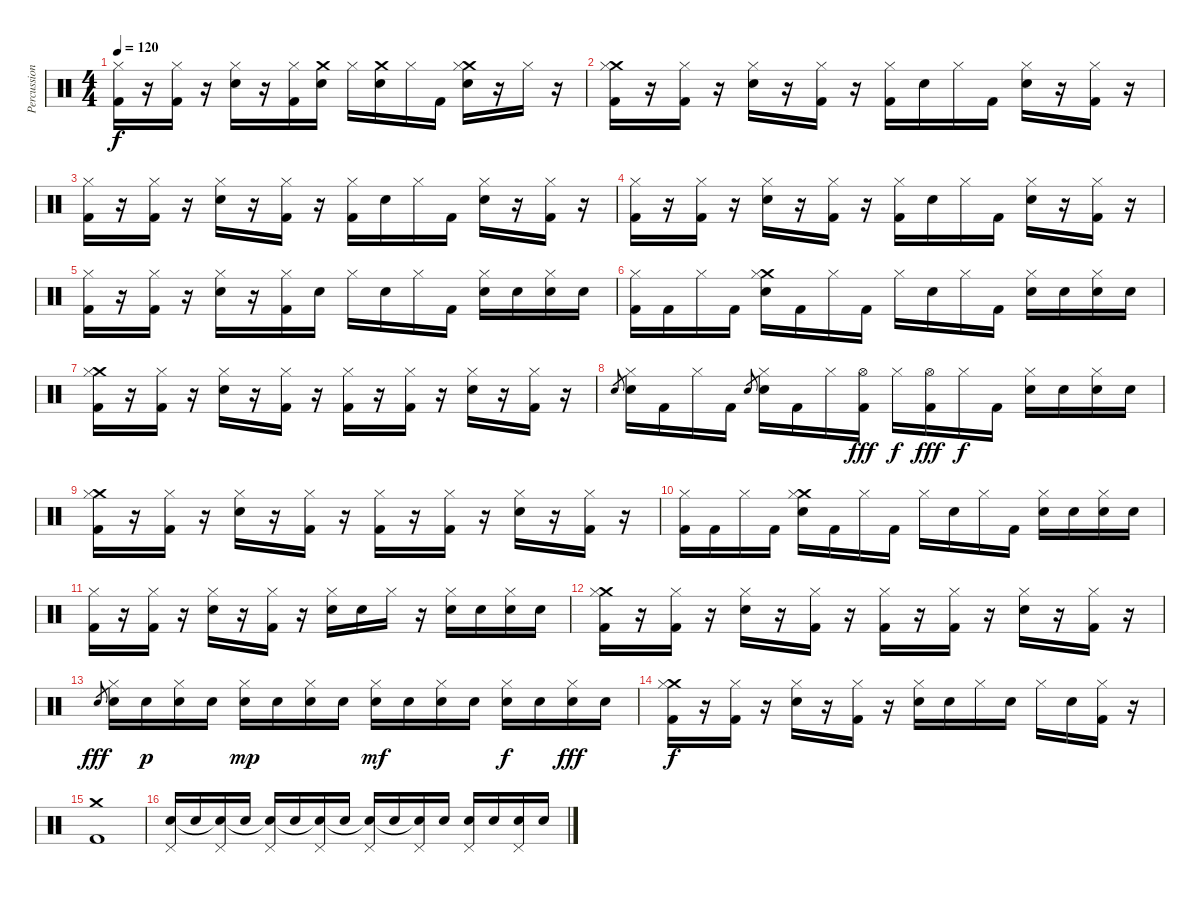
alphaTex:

\track ("Percussion" "Percussion") {instrument percussion}
\staff {score}
\articulation defaults
\ts (4 4)
\tempo 120
\clef neutral
\ks c
("Hi-Hat (closed)" "Kick (hit) 2").16{dy f} r.16 ("Hi-Hat (closed)" "Kick (hit) 2").16 r.16 ("Hi-Hat (closed)" "Snare (hit) 2").16 r.16 ("Hi-Hat (closed)" "Kick (hit) 2").16 ("Crash medium (hit)" "Snare (hit) 2").16 "Hi-Hat (closed)".16 ("Crash medium (hit)" "Snare (hit) 2").16 "Hi-Hat (closed)".16 "Kick (hit) 2".16 ("Crash medium (hit)" "Hi-Hat (closed)" "Snare (hit) 2").16 r.16 "Hi-Hat (closed)".16 r.16 |
("Crash medium (hit)" "Hi-Hat (closed)" "Kick (hit) 2").16 r.16 ("Hi-Hat (closed)" "Kick (hit) 2").16 r.16 ("Hi-Hat (closed)" "Snare (hit) 2").16 r.16 ("Hi-Hat (closed)" "Kick (hit) 2").16 r.16 ("Hi-Hat (closed)" "Kick (hit) 2").16 "Snare (hit) 2".16 "Hi-Hat (closed)".16 "Kick (hit) 2".16 ("Hi-Hat (closed)" "Snare (hit) 2").16 r.16 ("Hi-Hat (closed)" "Kick (hit) 2").16 r.16 |
("Hi-Hat (closed)" "Kick (hit) 2").16 r.16 ("Hi-Hat (closed)" "Kick (hit) 2").16 r.16 ("Hi-Hat (closed)" "Snare (hit) 2").16 r.16 ("Hi-Hat (closed)" "Kick (hit) 2").16 r.16 ("Hi-Hat (closed)" "Kick (hit) 2").16 "Snare (hit) 2".16 "Hi-Hat (closed)".16 "Kick (hit) 2".16 ("Hi-Hat (closed)" "Snare (hit) 2").16 r.16 ("Hi-Hat (closed)" "Kick (hit) 2").16 r.16 |
("Hi-Hat (closed)" "Kick (hit) 2").16 r.16 ("Hi-Hat (closed)" "Kick (hit) 2").16 r.16 ("Hi-Hat (closed)" "Snare (hit) 2").16 r.16 ("Hi-Hat (closed)" "Kick (hit) 2").16 r.16 ("Hi-Hat (closed)" "Kick (hit) 2").16 "Snare (hit) 2".16 "Hi-Hat (closed)".16 "Kick (hit) 2".16 ("Hi-Hat (closed)" "Snare (hit) 2").16 r.16 ("Hi-Hat (closed)" "Kick (hit) 2").16 r.16 |
("Hi-Hat (closed)" "Kick (hit) 2").16 r.16 ("Hi-Hat (closed)" "Kick (hit) 2").16 r.16 ("Hi-Hat (closed)" "Snare (hit) 2").16 r.16 ("Hi-Hat (closed)" "Kick (hit) 2").16 "Snare (hit) 2".16 "Hi-Hat (closed)".16 "Snare (hit) 2".16 "Hi-Hat (closed)".16 "Kick (hit) 2".16 ("Hi-Hat (closed)" "Snare (hit) 2").16 "Snare (hit) 2".16 ("Hi-Hat (closed)" "Snare (hit) 2").16 "Snare (hit) 2".16 |
("Hi-Hat (closed)" "Kick (hit) 2").16 "Kick (hit) 2".16 "Hi-Hat (closed)".16 "Kick (hit) 2".16 ("Crash medium (hit)" "Hi-Hat (closed)" "Snare (hit) 2").16 "Kick (hit) 2".16 "Hi-Hat (closed)".16 "Kick (hit) 2".16 "Hi-Hat (closed)".16 "Snare (hit) 2".16 "Hi-Hat (closed)".16 "Kick (hit) 2".16 ("Hi-Hat (closed)" "Snare (hit) 2").16 "Snare (hit) 2".16 ("Hi-Hat (closed)" "Snare (hit) 2").16 "Snare (hit) 2".16 |
("Crash medium (hit)" "Hi-Hat (closed)" "Kick (hit) 2").16 r.16 ("Hi-Hat (closed)" "Kick (hit) 2").16 r.16 ("Hi-Hat (closed)" "Snare (hit) 2").16 r.16 ("Hi-Hat (closed)" "Kick (hit) 2").16 r.16 ("Hi-Hat (closed)" "Kick (hit) 2").16 r.16 ("Hi-Hat (closed)" "Kick (hit) 2").16 r.16 ("Hi-Hat (closed)" "Snare (hit) 2").16 r.16 ("Hi-Hat (closed)" "Kick (hit) 2").16 r.16 |
"Snare (hit) 2".8{gr} ("Hi-Hat (closed)" "Snare (hit) 2").16 "Kick (hit) 2".16 "Hi-Hat (closed)".16 "Kick (hit) 2".16 "Snare (hit) 2".8{gr} ("Hi-Hat (closed)" "Snare (hit) 2").16 "Kick (hit) 2".16 "Hi-Hat (closed)".16 ("Hi-Hat (open)" "Kick (hit) 2").16{dy fff} "Hi-Hat (closed)".16{dy f} ("Hi-Hat (open)" "Kick (hit) 2").16{dy fff} "Hi-Hat (closed)".16{dy f} "Kick (hit) 2".16 ("Hi-Hat (closed)" "Snare (hit) 2").16 "Snare (hit) 2".16 ("Hi-Hat (closed)" "Snare (hit) 2").16 "Snare (hit) 2".16 |
("Crash medium (hit)" "Hi-Hat (closed)" "Kick (hit) 2").16 r.16 ("Hi-Hat (closed)" "Kick (hit) 2").16 r.16 ("Hi-Hat (closed)" "Snare (hit) 2").16 r.16 ("Hi-Hat (closed)" "Kick (hit) 2").16 r.16 ("Hi-Hat (closed)" "Kick (hit) 2").16 r.16 ("Hi-Hat (closed)" "Kick (hit) 2").16 r.16 ("Hi-Hat (closed)" "Snare (hit) 2").16 r.16 ("Hi-Hat (closed)" "Kick (hit) 2").16 r.16 |
("Hi-Hat (closed)" "Kick (hit) 2").16 "Kick (hit) 2".16 "Hi-Hat (closed)".16 "Kick (hit) 2".16 ("Crash medium (hit)" "Hi-Hat (closed)" "Snare (hit) 2").16 "Kick (hit) 2".16 "Hi-Hat (closed)".16 "Kick (hit) 2".16 "Hi-Hat (closed)".16 "Snare (hit) 2".16 "Hi-Hat (closed)".16 "Kick (hit) 2".16 ("Hi-Hat (closed)" "Snare (hit) 2").16 "Snare (hit) 2".16 ("Hi-Hat (closed)" "Snare (hit) 2").16 "Snare (hit) 2".16 |
("Hi-Hat (closed)" "Kick (hit) 2").16 r.16 ("Hi-Hat (closed)" "Kick (hit) 2").16 r.16 ("Hi-Hat (closed)" "Snare (hit) 2").16 r.16 ("Hi-Hat (closed)" "Kick (hit) 2").16 r.16 ("Hi-Hat (closed)" "Snare (hit) 2").16 "Snare (hit) 2".16 "Hi-Hat (closed)".16 r.16 ("Hi-Hat (closed)" "Snare (hit) 2").16 "Snare (hit) 2".16 ("Hi-Hat (closed)" "Snare (hit) 2").16 "Snare (hit) 2".16 |
("Crash medium (hit)" "Hi-Hat (closed)" "Kick (hit) 2").16 r.16 ("Hi-Hat (closed)" "Kick (hit) 2").16 r.16 ("Hi-Hat (closed)" "Snare (hit) 2").16 r.16 ("Hi-Hat (closed)" "Kick (hit) 2").16 r.16 ("Hi-Hat (closed)" "Kick (hit) 2").16 r.16 ("Hi-Hat (closed)" "Kick (hit) 2").16 r.16 ("Hi-Hat (closed)" "Snare (hit) 2").16 r.16 ("Hi-Hat (closed)" "Kick (hit) 2").16 r.16 |
"Snare (hit) 2".8{gr dy fff} ("Hi-Hat (closed)" "Snare (hit) 2").16 "Snare (hit) 2".16{dy p} ("Hi-Hat (closed)" "Snare (hit) 2").16 "Snare (hit) 2".16 ("Hi-Hat (closed)" "Snare (hit) 2").16{dy mp} "Snare (hit) 2".16 ("Hi-Hat (closed)" "Snare (hit) 2").16 "Snare (hit) 2".16 ("Hi-Hat (closed)" "Snare (hit) 2").16{dy mf} "Snare (hit) 2".16 ("Hi-Hat (closed)" "Snare (hit) 2").16 "Snare (hit) 2".16 ("Hi-Hat (closed)" "Snare (hit) 2").16{dy f} "Snare (hit) 2".16 ("Hi-Hat (closed)" "Snare (hit) 2").16{dy fff} "Snare (hit) 2".16 |
("Crash medium (hit)" "Hi-Hat (closed)" "Kick (hit) 2").16{dy f} r.16 ("Hi-Hat (closed)" "Kick (hit) 2").16 r.16 ("Hi-Hat (closed)" "Snare (hit) 2").16 r.16 ("Hi-Hat (closed)" "Kick (hit) 2").16 r.16 ("Hi-Hat (closed)" "Snare (hit) 2").16 "Snare (hit) 2".16 "Hi-Hat (closed)".16 "Snare (hit) 2".16 "Hi-Hat (closed)".16 "Snare (hit) 2".16 ("Hi-Hat (closed)" "Kick (hit) 2").16 r.16 |
("Crash medium (hit)" "Kick (hit) 2").1 |
("Pedal Hi-Hat (hit)" "Snare (hit) 2").16 "Snare (hit) 2".16 ("Pedal Hi-Hat (hit)" "Snare (hit)"{t}).16 "Snare (hit) 2".16 ("Pedal Hi-Hat (hit)" "Snare (hit)"{t}).16 "Snare (hit) 2".16 ("Pedal Hi-Hat (hit)" "Snare (hit)"{t}).16 "Snare (hit) 2".16 ("Pedal Hi-Hat (hit)" "Snare (hit)"{t}).16 "Snare (hit) 2".16 ("Pedal Hi-Hat (hit)" "Snare (hit)"{t}).16 "Snare (hit) 2".16 ("Pedal Hi-Hat (hit)" "Snare (hit) 2").16 "Snare (hit) 2".16 ("Pedal Hi-Hat (hit)" "Snare (hit) 2").16 "Snare (hit) 2".16
